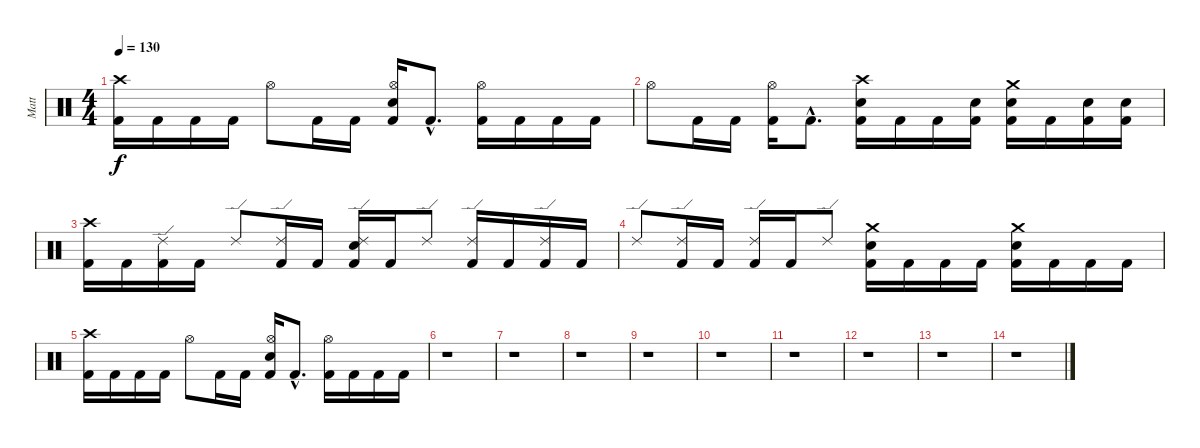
\track ("Matt" "Matt") {instrument percussion}
\staff {score}
\articulation defaults
\ts (4 4)
\tempo 130
\clef neutral
\ks c
("Crash high (hit)" "Kick (hit) 2").16{dy f} "Kick (hit) 2".16 "Kick (hit) 2".16 "Kick (hit) 2".16 "Hi-Hat (open)".8 "Kick (hit) 2".16 "Kick (hit) 2".16 ("Hi-Hat (open)" "Electric Snare (hit)" "Kick (hit) 2").16 "Kick (hit) 2"{hac}.8{d} ("Hi-Hat (open)" "Kick (hit) 2").16 "Kick (hit) 2".16 "Kick (hit) 2".16 "Kick (hit) 2".16 |
"Hi-Hat (open)".8 "Kick (hit) 2".16 "Kick (hit) 2".16 ("Hi-Hat (open)" "Kick (hit) 2").16 "Kick (hit) 2"{hac}.8{d} ("Crash high (hit)" "Electric Snare (hit)" "Kick (hit) 2").16 "Kick (hit) 2".16 "Kick (hit) 2".16 ("Electric Snare (hit)" "Kick (hit) 2").16 ("Crash medium (hit)" "Electric Snare (hit)" "Kick (hit) 2").16 "Kick (hit) 2".16 ("Electric Snare (hit)" "Kick (hit) 2").16 ("Electric Snare (hit)" "Kick (hit) 2").16 |
("Crash high (hit)" "Kick (hit) 2").16{volume 0} "Kick (hit) 2".16 ("Ride (edge) 2" "Kick (hit) 2").16 "Kick (hit) 2".16 "Ride (edge) 2".8 ("Ride (edge) 2" "Kick (hit) 2").16 "Kick (hit) 2".16 ("Ride (edge) 2" "Electric Snare (hit)" "Kick (hit) 2").16 "Kick (hit) 2".16 "Ride (edge) 2".8 ("Ride (edge) 2" "Kick (hit) 2").16 "Kick (hit) 2".16 ("Ride (edge) 2" "Kick (hit) 2").16 "Kick (hit) 2".16 |
"Ride (edge) 2".8 ("Ride (edge) 2" "Kick (hit) 2").16 "Kick (hit) 2".16 ("Ride (edge) 2" "Kick (hit) 2").16 "Kick (hit) 2".16 "Ride (edge) 2".8 ("Crash medium (hit)" "Electric Snare (hit)" "Kick (hit) 2").16 "Kick (hit) 2".16 "Kick (hit) 2".16 "Kick (hit) 2".16 ("Crash medium (hit)" "Electric Snare (hit)" "Kick (hit) 2").16 "Kick (hit) 2".16 "Kick (hit) 2".16 "Kick (hit) 2".16 |
("Crash high (hit)" "Kick (hit) 2").16 "Kick (hit) 2".16 "Kick (hit) 2".16 "Kick (hit) 2".16 "Hi-Hat (open)".8 "Kick (hit) 2".16 "Kick (hit) 2".16 ("Hi-Hat (open)" "Electric Snare (hit)" "Kick (hit) 2").16 "Kick (hit) 2"{hac}.8{d} ("Hi-Hat (open)" "Kick (hit) 2").16 "Kick (hit) 2".16 "Kick (hit) 2".16 "Kick (hit) 2".16 |
r.1 |
r.1 |
r.1 |
r.1 |
r.1 |
r.1 |
r.1 |
r.1 |
r.1
